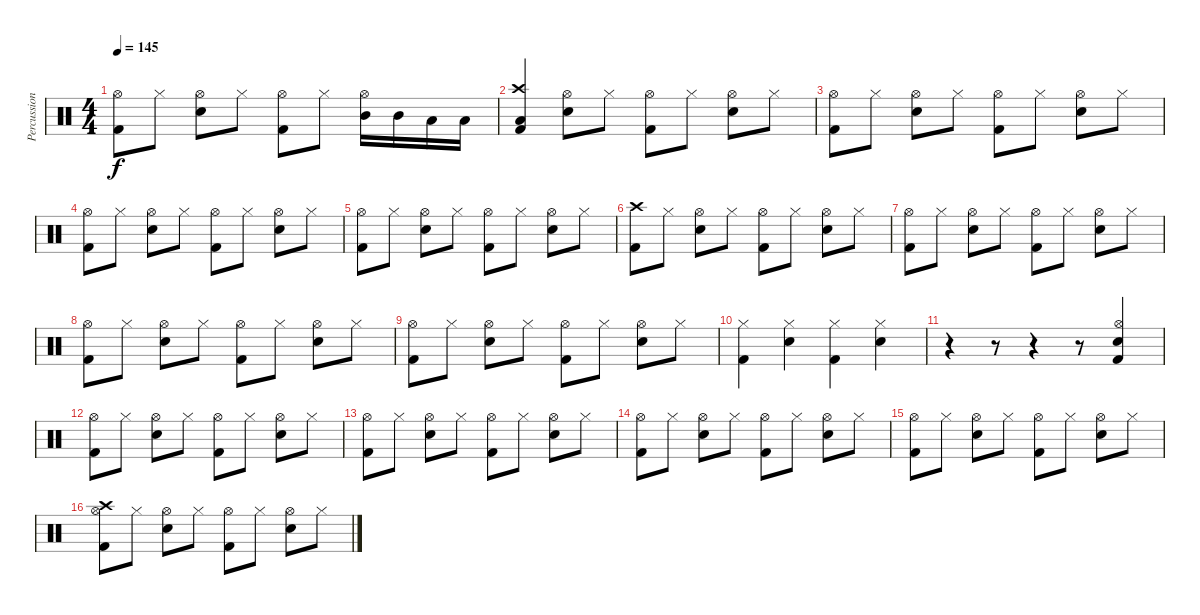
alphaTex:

\track ("Percussion" "Percussion") {instrument percussion bank 1}
\staff {score}
\articulation defaults
\ts (4 4)
\tempo 145
\clef neutral
\ks c
("Kick (hit) 2" "Hi-Hat (open)").8{dy f} "Hi-Hat (closed)".8 ("Electric Snare (hit)" "Hi-Hat (open)").8 "Hi-Hat (closed)".8 ("Kick (hit) 2" "Hi-Hat (open)").8 "Hi-Hat (closed)".8 ("Mid Tom (hit)" "Hi-Hat (open)").16 "Mid Tom (hit)".16 "Low Tom (hit)".16 "Low Tom (hit)".16 |
("Crash high (hit)" "Low Floor Tom (hit)" "Kick (hit) 2").4 ("Electric Snare (hit)" "Hi-Hat (open)").8 "Hi-Hat (closed)".8 ("Kick (hit) 2" "Hi-Hat (open)").8 "Hi-Hat (closed)".8 ("Electric Snare (hit)" "Hi-Hat (open)").8 "Hi-Hat (closed)".8 |
("Kick (hit) 2" "Hi-Hat (open)").8 "Hi-Hat (closed)".8 ("Electric Snare (hit)" "Hi-Hat (open)").8 "Hi-Hat (closed)".8 ("Kick (hit) 2" "Hi-Hat (open)").8 "Hi-Hat (closed)".8 ("Electric Snare (hit)" "Hi-Hat (open)").8 "Hi-Hat (closed)".8 |
("Kick (hit) 2" "Hi-Hat (open)").8 "Hi-Hat (closed)".8 ("Electric Snare (hit)" "Hi-Hat (open)").8 "Hi-Hat (closed)".8 ("Kick (hit) 2" "Hi-Hat (open)").8 "Hi-Hat (closed)".8 ("Electric Snare (hit)" "Hi-Hat (open)").8 "Hi-Hat (closed)".8 |
("Kick (hit) 2" "Hi-Hat (open)").8 "Hi-Hat (closed)".8 ("Electric Snare (hit)" "Hi-Hat (open)").8 "Hi-Hat (closed)".8 ("Kick (hit) 2" "Hi-Hat (open)").8 "Hi-Hat (closed)".8 ("Electric Snare (hit)" "Hi-Hat (open)").8 "Hi-Hat (closed)".8 |
("Kick (hit) 2" "Crash high (hit)").8 "Hi-Hat (closed)".8 ("Electric Snare (hit)" "Hi-Hat (open)").8 "Hi-Hat (closed)".8 ("Kick (hit) 2" "Hi-Hat (open)").8 "Hi-Hat (closed)".8 ("Electric Snare (hit)" "Hi-Hat (open)").8 "Hi-Hat (closed)".8 |
("Kick (hit) 2" "Hi-Hat (open)").8 "Hi-Hat (closed)".8 ("Electric Snare (hit)" "Hi-Hat (open)").8 "Hi-Hat (closed)".8 ("Kick (hit) 2" "Hi-Hat (open)").8 "Hi-Hat (closed)".8 ("Electric Snare (hit)" "Hi-Hat (open)").8 "Hi-Hat (closed)".8 |
("Kick (hit) 2" "Hi-Hat (open)").8 "Hi-Hat (closed)".8 ("Electric Snare (hit)" "Hi-Hat (open)").8 "Hi-Hat (closed)".8 ("Kick (hit) 2" "Hi-Hat (open)").8 "Hi-Hat (closed)".8 ("Electric Snare (hit)" "Hi-Hat (open)").8 "Hi-Hat (closed)".8 |
("Kick (hit) 2" "Hi-Hat (open)").8 "Hi-Hat (closed)".8 ("Electric Snare (hit)" "Hi-Hat (open)").8 "Hi-Hat (closed)".8 ("Kick (hit) 2" "Hi-Hat (open)").8 "Hi-Hat (closed)".8 ("Electric Snare (hit)" "Hi-Hat (open)").8 "Hi-Hat (closed)".8 |
("Kick (hit) 2" "Hi-Hat (closed)").4 ("Electric Snare (hit)" "Hi-Hat (closed)").4 ("Kick (hit) 2" "Hi-Hat (closed)").4 ("Electric Snare (hit)" "Hi-Hat (closed)").4 |
r.4 r.8 r.4 r.8 ("Hi-Hat (open)" "Electric Snare (hit)" "Kick (hit) 2").4 |
("Kick (hit) 2" "Hi-Hat (open)").8 "Hi-Hat (closed)".8 ("Electric Snare (hit)" "Hi-Hat (open)").8 "Hi-Hat (closed)".8 ("Kick (hit) 2" "Hi-Hat (open)").8 "Hi-Hat (closed)".8 ("Electric Snare (hit)" "Hi-Hat (open)").8 "Hi-Hat (closed)".8 |
("Kick (hit) 2" "Hi-Hat (open)").8 "Hi-Hat (closed)".8 ("Electric Snare (hit)" "Hi-Hat (open)").8 "Hi-Hat (closed)".8 ("Kick (hit) 2" "Hi-Hat (open)").8 "Hi-Hat (closed)".8 ("Electric Snare (hit)" "Hi-Hat (open)").8 "Hi-Hat (closed)".8 |
("Kick (hit) 2" "Hi-Hat (open)").8 "Hi-Hat (closed)".8 ("Electric Snare (hit)" "Hi-Hat (open)").8 "Hi-Hat (closed)".8 ("Kick (hit) 2" "Hi-Hat (open)").8 "Hi-Hat (closed)".8 ("Electric Snare (hit)" "Hi-Hat (open)").8 "Hi-Hat (closed)".8 |
("Kick (hit) 2" "Hi-Hat (open)").8 "Hi-Hat (closed)".8 ("Electric Snare (hit)" "Hi-Hat (open)").8 "Hi-Hat (closed)".8 ("Kick (hit) 2" "Hi-Hat (open)").8 "Hi-Hat (closed)".8 ("Electric Snare (hit)" "Hi-Hat (open)").8 "Hi-Hat (closed)".8 |
("Kick (hit) 2" "Crash high (hit)" "Hi-Hat (open)").8 "Hi-Hat (closed)".8 ("Electric Snare (hit)" "Hi-Hat (open)").8 "Hi-Hat (closed)".8 ("Kick (hit) 2" "Hi-Hat (open)").8 "Hi-Hat (closed)".8 ("Electric Snare (hit)" "Hi-Hat (open)").8 "Hi-Hat (closed)".8
